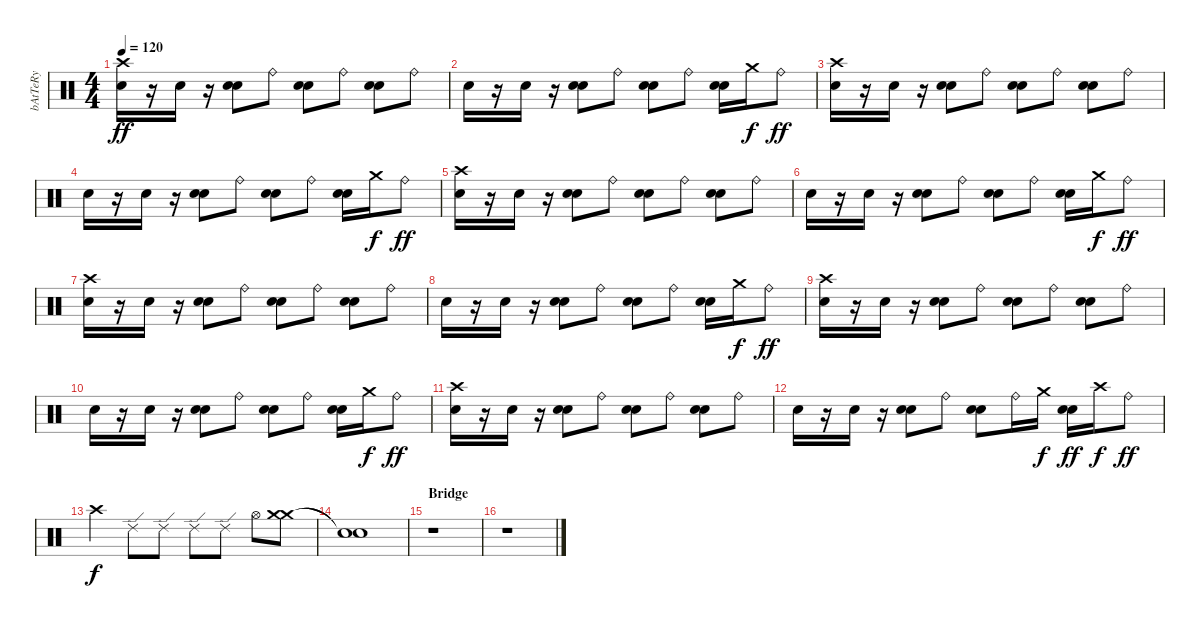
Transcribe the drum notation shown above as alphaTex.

\track ("bAtTeRy" "bAtTeRy") {instrument percussion}
\staff {score}
\articulation defaults
\ts (4 4)
\tempo 120
\clef neutral
\ks c
("Crash high (hit)" "Electric Snare (hit)").16{dy ff} r.16 "Electric Snare (hit)".16 r.16 ("Electric Snare (hit)" "Electric Snare (hit)").8{bd 480} "Ride (bell)".8 ("Electric Snare (hit)" "Electric Snare (hit)").8{bd 480} "Ride (bell)".8 ("Electric Snare (hit)" "Electric Snare (hit)").8{bd 480} "Ride (bell)".8 |
"Electric Snare (hit)".16 r.16 "Electric Snare (hit)".16 r.16 ("Electric Snare (hit)" "Electric Snare (hit)").8{bd 480} "Ride (bell)".8 ("Electric Snare (hit)" "Electric Snare (hit)").8{bd 480} "Ride (bell)".8 ("Electric Snare (hit)" "Electric Snare (hit)").16{bd 480} "Crash medium (hit)".16{dy f} "Ride (bell)".8{dy ff} |
("Crash high (hit)" "Electric Snare (hit)").16 r.16 "Electric Snare (hit)".16 r.16 ("Electric Snare (hit)" "Electric Snare (hit)").8{bd 480} "Ride (bell)".8 ("Electric Snare (hit)" "Electric Snare (hit)").8{bd 480} "Ride (bell)".8 ("Electric Snare (hit)" "Electric Snare (hit)").8{bd 480} "Ride (bell)".8 |
"Electric Snare (hit)".16 r.16 "Electric Snare (hit)".16 r.16 ("Electric Snare (hit)" "Electric Snare (hit)").8{bd 480} "Ride (bell)".8 ("Electric Snare (hit)" "Electric Snare (hit)").8{bd 480} "Ride (bell)".8 ("Electric Snare (hit)" "Electric Snare (hit)").16{bd 480} "Crash medium (hit)".16{dy f} "Ride (bell)".8{dy ff} |
("Crash high (hit)" "Electric Snare (hit)").16 r.16 "Electric Snare (hit)".16 r.16 ("Electric Snare (hit)" "Electric Snare (hit)").8{bd 480} "Ride (bell)".8 ("Electric Snare (hit)" "Electric Snare (hit)").8{bd 480} "Ride (bell)".8 ("Electric Snare (hit)" "Electric Snare (hit)").8{bd 480} "Ride (bell)".8 |
"Electric Snare (hit)".16 r.16 "Electric Snare (hit)".16 r.16 ("Electric Snare (hit)" "Electric Snare (hit)").8{bd 480} "Ride (bell)".8 ("Electric Snare (hit)" "Electric Snare (hit)").8{bd 480} "Ride (bell)".8 ("Electric Snare (hit)" "Electric Snare (hit)").16{bd 480} "Crash medium (hit)".16{dy f} "Ride (bell)".8{dy ff} |
("Crash high (hit)" "Electric Snare (hit)").16 r.16 "Electric Snare (hit)".16 r.16 ("Electric Snare (hit)" "Electric Snare (hit)").8{bd 480} "Ride (bell)".8 ("Electric Snare (hit)" "Electric Snare (hit)").8{bd 480} "Ride (bell)".8 ("Electric Snare (hit)" "Electric Snare (hit)").8{bd 480} "Ride (bell)".8 |
"Electric Snare (hit)".16 r.16 "Electric Snare (hit)".16 r.16 ("Electric Snare (hit)" "Electric Snare (hit)").8{bd 480} "Ride (bell)".8 ("Electric Snare (hit)" "Electric Snare (hit)").8{bd 480} "Ride (bell)".8 ("Electric Snare (hit)" "Electric Snare (hit)").16{bd 480} "Crash medium (hit)".16{dy f} "Ride (bell)".8{dy ff} |
("Crash high (hit)" "Electric Snare (hit)").16 r.16 "Electric Snare (hit)".16 r.16 ("Electric Snare (hit)" "Electric Snare (hit)").8{bd 480} "Ride (bell)".8 ("Electric Snare (hit)" "Electric Snare (hit)").8{bd 480} "Ride (bell)".8 ("Electric Snare (hit)" "Electric Snare (hit)").8{bd 480} "Ride (bell)".8 |
"Electric Snare (hit)".16 r.16 "Electric Snare (hit)".16 r.16 ("Electric Snare (hit)" "Electric Snare (hit)").8{bd 480} "Ride (bell)".8 ("Electric Snare (hit)" "Electric Snare (hit)").8{bd 480} "Ride (bell)".8 ("Electric Snare (hit)" "Electric Snare (hit)").16{bd 480} "Crash medium (hit)".16{dy f} "Ride (bell)".8{dy ff} |
("Crash high (hit)" "Electric Snare (hit)").16 r.16 "Electric Snare (hit)".16 r.16 ("Electric Snare (hit)" "Electric Snare (hit)").8{bd 480} "Ride (bell)".8 ("Electric Snare (hit)" "Electric Snare (hit)").8{bd 480} "Ride (bell)".8 ("Electric Snare (hit)" "Electric Snare (hit)").8{bd 480} "Ride (bell)".8 |
"Electric Snare (hit)".16 r.16 "Electric Snare (hit)".16 r.16 ("Electric Snare (hit)" "Electric Snare (hit)").8{bd 480} "Ride (bell)".8 ("Electric Snare (hit)" "Electric Snare (hit)").8{bd 480} "Ride (bell)".16 "Crash medium (hit)".16{dy f} ("Electric Snare (hit)" "Electric Snare (hit)").16{bd 480 dy ff} "Crash high (hit)".16{dy f} "Ride (bell)".8{dy ff} |
"Crash high (hit)".4{dy f} "Ride (edge) 2".8 "Ride (edge) 2".8 "Ride (edge) 2".8 "Ride (edge) 2".8 "Hi-Hat (open)".8 ("Crash medium (hit)" "Crash medium (hit)").8 |
("Snare (hit)"{t} "Snare (hit)"{t}).1 |
\section ("" "Bridge")
r.1 |
r.1
